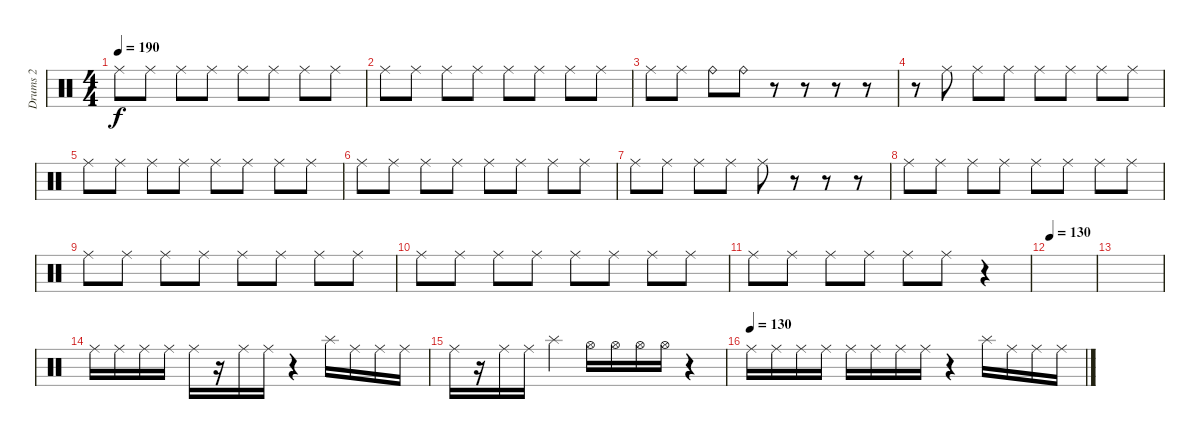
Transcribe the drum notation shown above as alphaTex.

\track ("Drums 2" "Drums 2") {instrument percussion}
\staff {score}
\articulation defaults
\ts (4 4)
\tempo 190
\clef neutral
\ks c "Ride (middle)".8{dy f} "Ride (middle)".8 "Ride (middle)".8 "Ride (middle)".8 "Ride (middle)".8 "Ride (middle)".8 "Ride (middle)".8 "Ride (middle)".8
|
"Ride (middle)".8 "Ride (middle)".8 "Ride (middle)".8 "Ride (middle)".8 "Ride (middle)".8 "Ride (middle)".8 "Ride (middle)".8 "Ride (middle)".8 |
"Ride (middle)".8 "Ride (middle)".8 "Ride (bell)".8 "Ride (bell)".8 r.8 r.8 r.8 r.8 |
r.8 "Ride (middle)".8 "Ride (middle)".8 "Ride (middle)".8 "Ride (middle)".8 "Ride (middle)".8 "Ride (middle)".8 "Ride (middle)".8 |
"Ride (middle)".8 "Ride (middle)".8 "Ride (middle)".8 "Ride (middle)".8 "Ride (middle)".8 "Ride (middle)".8 "Ride (middle)".8 "Ride (middle)".8 |
"Ride (middle)".8 "Ride (middle)".8 "Ride (middle)".8 "Ride (middle)".8 "Ride (middle)".8 "Ride (middle)".8 "Ride (middle)".8 "Ride (middle)".8 |
"Ride (middle)".8 "Ride (middle)".8 "Ride (middle)".8 "Ride (middle)".8 "Ride (middle)".8 r.8 r.8 r.8 |
"Ride (middle)".8 "Ride (middle)".8 "Ride (middle)".8 "Ride (middle)".8 "Ride (middle)".8 "Ride (middle)".8 "Ride (middle)".8 "Ride (middle)".8 |
"Ride (middle)".8 "Ride (middle)".8 "Ride (middle)".8 "Ride (middle)".8 "Ride (middle)".8 "Ride (middle)".8 "Ride (middle)".8 "Ride (middle)".8 |
"Ride (middle)".8 "Ride (middle)".8 "Ride (middle)".8 "Ride (middle)".8 "Ride (middle)".8 "Ride (middle)".8 "Ride (middle)".8 "Ride (middle)".8 |
"Ride (middle)".8 "Ride (middle)".8 "Ride (middle)".8 "Ride (middle)".8 "Ride (middle)".8 "Ride (middle)".8 r.4 |
\tempo 130
|
|
"Ride (middle)".16 "Ride (middle)".16 "Ride (middle)".16 "Ride (middle)".16 "Ride (middle)".16 r.16 "Ride (middle)".16 "Ride (middle)".16 r.4 "Splash (hit)".16 "Ride (middle)".16 "Ride (middle)".16 "Ride (middle)".16 |
"Ride (middle)".16 r.16 "Ride (middle)".16 "Ride (middle)".16 "Splash (hit)".4 "Hi-Hat (open)".16 "Hi-Hat (open)".16 "Hi-Hat (open)".16 "Hi-Hat (open)".16 r.4 |
\tempo (130)
"Ride (middle)".16 "Ride (middle)".16 "Ride (middle)".16 "Ride (middle)".16 "Ride (middle)".16 "Ride (middle)".16 "Ride (middle)".16 "Ride (middle)".16 r.4 "Splash (hit)".16 "Ride (middle)".16 "Ride (middle)".16 "Ride (middle)".16
